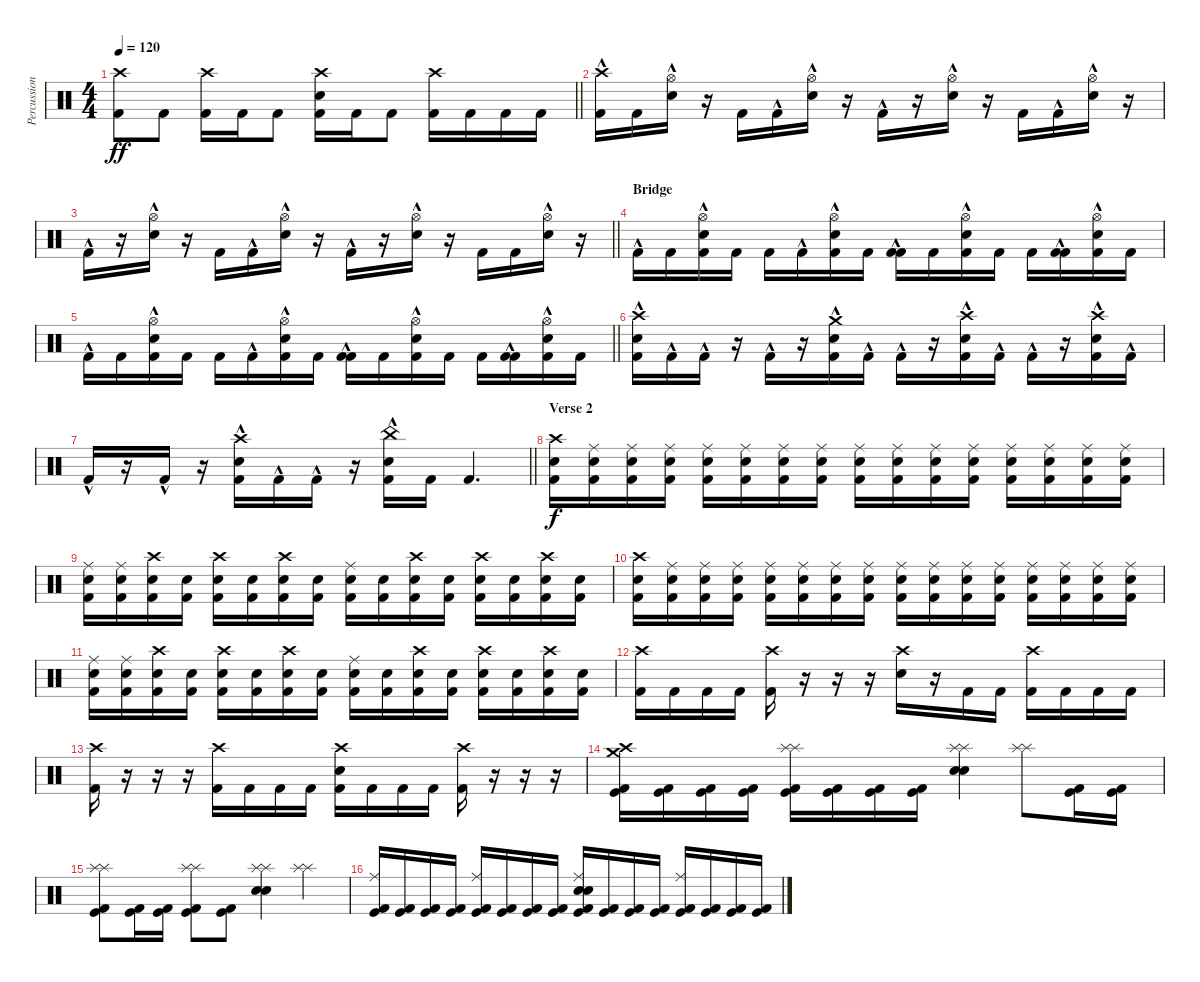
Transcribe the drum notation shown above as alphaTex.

\track ("Percussions" "Percussion") {instrument percussion}
\staff {score}
\articulation defaults
\ts (4 4)
\tempo 120
\clef neutral
\barLineRight lightlight
\ks c
("Crash high (hit)" "Kick (hit) 2").8{dy ff} "Kick (hit) 2".8 ("Crash high (hit)" "Kick (hit) 2").16 "Kick (hit) 2".16 "Kick (hit) 2".8 ("Crash high (hit)" "Electric Snare (hit)" "Kick (hit) 2").16 "Kick (hit) 2".16 "Kick (hit) 2".8 ("Crash high (hit)" "Kick (hit) 2").16 "Kick (hit) 2".16 "Kick (hit) 2".16 "Kick (hit) 2".16 |
("Crash high (hit)" "Kick (hit) 2"{hac}).16 "Kick (hit) 2".16 ("Hi-Hat (open)" "Electric Snare (hit)"{hac}).16 r.16 "Kick (hit) 2".16 "Kick (hit) 2"{hac}.16 ("Hi-Hat (open)" "Electric Snare (hit)"{hac}).16 r.16 "Kick (hit) 2"{hac}.16 r.16 ("Hi-Hat (open)" "Electric Snare (hit)"{hac}).16 r.16 "Kick (hit) 2".16 "Kick (hit) 2"{hac}.16 ("Hi-Hat (open)" "Electric Snare (hit)"{hac}).16 r.16 |
\barLineRight lightlight "Kick (hit) 2"{hac}.16
r.16 ("Hi-Hat (open)" "Electric Snare (hit)"{hac}).16 r.16 "Kick (hit) 2".16 "Kick (hit) 2"{hac}.16 ("Hi-Hat (open)" "Electric Snare (hit)"{hac}).16 r.16 "Kick (hit) 2"{hac}.16 r.16 ("Hi-Hat (open)" "Electric Snare (hit)"{hac}).16 r.16 "Kick (hit) 2".16 "Kick (hit) 2".16 ("Hi-Hat (open)" "Electric Snare (hit)"{hac}).16 r.16 |
\section ("" "Bridge")
"Kick (hit) 2"{hac}.16 "Kick (hit) 2".16 ("Hi-Hat (open)" "Electric Snare (hit)"{hac} "Kick (hit) 2").16 "Kick (hit) 2".16 "Kick (hit) 2".16 "Kick (hit) 2"{hac}.16 ("Hi-Hat (open)" "Electric Snare (hit)"{hac} "Kick (hit) 2").16 "Kick (hit) 2".16 ("Kick (hit) 2"{hac} "Kick (hit) 2").16 "Kick (hit) 2".16 ("Hi-Hat (open)" "Electric Snare (hit)"{hac} "Kick (hit) 2").16 "Kick (hit) 2".16 "Kick (hit) 2".16 ("Kick (hit) 2"{hac} "Kick (hit) 2").16 ("Hi-Hat (open)" "Electric Snare (hit)"{hac} "Kick (hit) 2").16 "Kick (hit) 2".16 |
\barLineRight lightlight "Kick (hit) 2"{hac}.16 "Kick (hit) 2".16
("Hi-Hat (open)" "Electric Snare (hit)"{hac} "Kick (hit) 2").16 "Kick (hit) 2".16 "Kick (hit) 2".16 "Kick (hit) 2"{hac}.16 ("Hi-Hat (open)" "Electric Snare (hit)"{hac} "Kick (hit) 2").16 "Kick (hit) 2".16 ("Kick (hit) 2"{hac} "Kick (hit) 2").16 "Kick (hit) 2".16 ("Hi-Hat (open)" "Electric Snare (hit)"{hac} "Kick (hit) 2").16 "Kick (hit) 2".16 "Kick (hit) 2".16 ("Kick (hit) 2"{hac} "Kick (hit) 2").16 ("Hi-Hat (open)" "Electric Snare (hit)"{hac} "Kick (hit) 2").16 "Kick (hit) 2".16 |
("Crash high (hit)" "Electric Snare (hit)" "Kick (hit) 2"{hac}).16 "Kick (hit) 2"{hac}.16 "Kick (hit) 2"{hac}.16 r.16 "Kick (hit) 2"{hac}.16 r.16 ("Crash medium (hit)" "Electric Snare (hit)" "Kick (hit) 2"{hac}).16 "Kick (hit) 2"{hac}.16 "Kick (hit) 2"{hac}.16 r.16 ("Crash high (hit)" "Electric Snare (hit)" "Kick (hit) 2"{hac}).16 "Kick (hit) 2"{hac}.16 "Kick (hit) 2"{hac}.16 r.16 ("Crash high (hit)" "Electric Snare (hit)" "Kick (hit) 2"{hac}).16 "Kick (hit) 2"{hac}.16 |
\barLineRight lightlight "Kick (hit) 2"{hac}.16
r.16 "Kick (hit) 2"{hac}.16 r.16 ("Crash high (hit)" "Electric Snare (hit)" "Kick (hit) 2"{hac}).16 "Kick (hit) 2"{hac}.16 "Kick (hit) 2"{hac}.16 r.16 ("China (hit)" "Electric Snare (hit)" "Kick (hit) 2"{hac}).16 "Kick (hit) 2".16 "Kick (hit) 2".4{d} |
\section ("" "Verse 2")
("Crash high (hit)" "Snare (hit) 2" "Kick (hit) 2").16{dy f} ("Ride (middle)" "Snare (hit) 2" "Kick (hit) 2").16 ("Ride (middle)" "Snare (hit) 2" "Kick (hit) 2").16 ("Ride (middle)" "Snare (hit) 2" "Kick (hit) 2").16 ("Ride (middle)" "Snare (hit) 2" "Kick (hit) 2").16 ("Ride (middle)" "Snare (hit) 2" "Kick (hit) 2").16 ("Ride (middle)" "Snare (hit) 2" "Kick (hit) 2").16 ("Ride (middle)" "Snare (hit) 2" "Kick (hit) 2").16 ("Ride (middle)" "Snare (hit) 2" "Kick (hit) 2").16 ("Ride (middle)" "Snare (hit) 2" "Kick (hit) 2").16 ("Ride (middle)" "Snare (hit) 2" "Kick (hit) 2").16 ("Ride (middle)" "Snare (hit) 2" "Kick (hit) 2").16 ("Ride (middle)" "Snare (hit) 2" "Kick (hit) 2").16 ("Ride (middle)" "Snare (hit) 2" "Kick (hit) 2").16 ("Ride (middle)" "Snare (hit) 2" "Kick (hit) 2").16 ("Ride (middle)" "Snare (hit) 2" "Kick (hit) 2").16 |
("Ride (middle)" "Snare (hit) 2" "Kick (hit) 2").16 ("Ride (middle)" "Snare (hit) 2" "Kick (hit) 2").16 ("Crash high (hit)" "Snare (hit) 2" "Kick (hit) 2").16 ("Snare (hit) 2" "Kick (hit) 2").16 ("Crash high (hit)" "Snare (hit) 2" "Kick (hit) 2").16 ("Snare (hit) 2" "Kick (hit) 2").16 ("Crash high (hit)" "Snare (hit) 2" "Kick (hit) 2").16 ("Snare (hit) 2" "Kick (hit) 2").16 ("Ride (middle)" "Snare (hit) 2" "Kick (hit) 2").16 ("Snare (hit) 2" "Kick (hit) 2").16 ("Crash high (hit)" "Snare (hit) 2" "Kick (hit) 2").16 ("Snare (hit) 2" "Kick (hit) 2").16 ("Crash high (hit)" "Snare (hit) 2" "Kick (hit) 2").16 ("Snare (hit) 2" "Kick (hit) 2").16 ("Crash high (hit)" "Snare (hit) 2" "Kick (hit) 2").16 ("Snare (hit) 2" "Kick (hit) 2").16 |
("Crash high (hit)" "Snare (hit) 2" "Kick (hit) 2").16 ("Ride (middle)" "Snare (hit) 2" "Kick (hit) 2").16 ("Ride (middle)" "Snare (hit) 2" "Kick (hit) 2").16 ("Ride (middle)" "Snare (hit) 2" "Kick (hit) 2").16 ("Ride (middle)" "Snare (hit) 2" "Kick (hit) 2").16 ("Ride (middle)" "Snare (hit) 2" "Kick (hit) 2").16 ("Ride (middle)" "Snare (hit) 2" "Kick (hit) 2").16 ("Ride (middle)" "Snare (hit) 2" "Kick (hit) 2").16 ("Ride (middle)" "Snare (hit) 2" "Kick (hit) 2").16 ("Ride (middle)" "Snare (hit) 2" "Kick (hit) 2").16 ("Ride (middle)" "Snare (hit) 2" "Kick (hit) 2").16 ("Ride (middle)" "Snare (hit) 2" "Kick (hit) 2").16 ("Ride (middle)" "Snare (hit) 2" "Kick (hit) 2").16 ("Ride (middle)" "Snare (hit) 2" "Kick (hit) 2").16 ("Ride (middle)" "Snare (hit) 2" "Kick (hit) 2").16 ("Ride (middle)" "Snare (hit) 2" "Kick (hit) 2").16 |
("Ride (middle)" "Snare (hit) 2" "Kick (hit) 2").16 ("Ride (middle)" "Snare (hit) 2" "Kick (hit) 2").16 ("Crash high (hit)" "Snare (hit) 2" "Kick (hit) 2").16 ("Snare (hit) 2" "Kick (hit) 2").16 ("Crash high (hit)" "Snare (hit) 2" "Kick (hit) 2").16 ("Snare (hit) 2" "Kick (hit) 2").16 ("Crash high (hit)" "Snare (hit) 2" "Kick (hit) 2").16 ("Snare (hit) 2" "Kick (hit) 2").16 ("Ride (middle)" "Snare (hit) 2" "Kick (hit) 2").16 ("Snare (hit) 2" "Kick (hit) 2").16 ("Crash high (hit)" "Snare (hit) 2" "Kick (hit) 2").16 ("Snare (hit) 2" "Kick (hit) 2").16 ("Crash high (hit)" "Snare (hit) 2" "Kick (hit) 2").16 ("Snare (hit) 2" "Kick (hit) 2").16 ("Crash high (hit)" "Snare (hit) 2" "Kick (hit) 2").16 ("Snare (hit) 2" "Kick (hit) 2").16 |
("Crash high (hit)" "Kick (hit) 2").16 "Kick (hit) 2".16 "Kick (hit) 2".16 "Kick (hit) 2".16 ("Crash high (hit)" "Kick (hit) 2").16 r.16 r.16 r.16 ("Crash high (hit)" "Electric Snare (hit)").16 r.16 "Kick (hit) 2".16 "Kick (hit) 2".16 ("Crash high (hit)" "Kick (hit) 2").16 "Kick (hit) 2".16 "Kick (hit) 2".16 "Kick (hit) 2".16 |
("Crash high (hit)" "Kick (hit) 2").16 r.16 r.16 r.16 ("Crash high (hit)" "Kick (hit) 2").16 "Kick (hit) 2".16 "Kick (hit) 2".16 "Kick (hit) 2".16 ("Crash high (hit)" "Electric Snare (hit)" "Kick (hit) 2").16 "Kick (hit) 2".16 "Kick (hit) 2".16 "Kick (hit) 2".16 ("Crash high (hit)" "Kick (hit) 2").16 r.16 r.16 r.16 |
("Crash medium (hit)" "Crash high (hit)" "Kick (hit)" "Kick (hit) 2").16 ("Kick (hit)" "Kick (hit) 2").16 ("Kick (hit)" "Kick (hit) 2").16 ("Kick (hit)" "Kick (hit) 2").16 ("Splash (hit)" "Splash (hit)" "Kick (hit)" "Kick (hit) 2").16 ("Kick (hit)" "Kick (hit) 2").16 ("Kick (hit)" "Kick (hit) 2").16 ("Kick (hit)" "Kick (hit) 2").16 ("Splash (hit)" "Splash (hit)" "Electric Snare (hit)" "Snare (hit) 2").4 ("Splash (hit)" "Splash (hit)").8 ("Kick (hit)" "Kick (hit) 2").16 ("Kick (hit)" "Kick (hit) 2").16 |
("Splash (hit)" "Splash (hit)" "Kick (hit)" "Kick (hit) 2").8 ("Kick (hit)" "Kick (hit) 2").16 ("Kick (hit)" "Kick (hit) 2").16 ("Splash (hit)" "Splash (hit)" "Kick (hit)" "Kick (hit) 2").8 ("Kick (hit)" "Kick (hit) 2").8 ("Splash (hit)" "Splash (hit)" "Electric Snare (hit)" "Snare (hit) 2").4 ("Splash (hit)" "Splash (hit)").4 |
("Ride (middle)" "Kick (hit)" "Kick (hit) 2").16 ("Kick (hit)" "Kick (hit) 2").16 ("Kick (hit)" "Kick (hit) 2").16 ("Kick (hit)" "Kick (hit) 2").16 ("Ride (middle)" "Kick (hit)" "Kick (hit) 2").16 ("Kick (hit)" "Kick (hit) 2").16 ("Kick (hit)" "Kick (hit) 2").16 ("Kick (hit)" "Kick (hit) 2").16 ("Ride (middle)" "Electric Snare (hit)" "Snare (hit) 2" "Kick (hit)" "Kick (hit) 2").16 ("Kick (hit)" "Kick (hit) 2").16 ("Kick (hit)" "Kick (hit) 2").16 ("Kick (hit)" "Kick (hit) 2").16 ("Ride (middle)" "Kick (hit)" "Kick (hit) 2").16 ("Kick (hit)" "Kick (hit) 2").16 ("Kick (hit)" "Kick (hit) 2").16 ("Kick (hit)" "Kick (hit) 2").16
